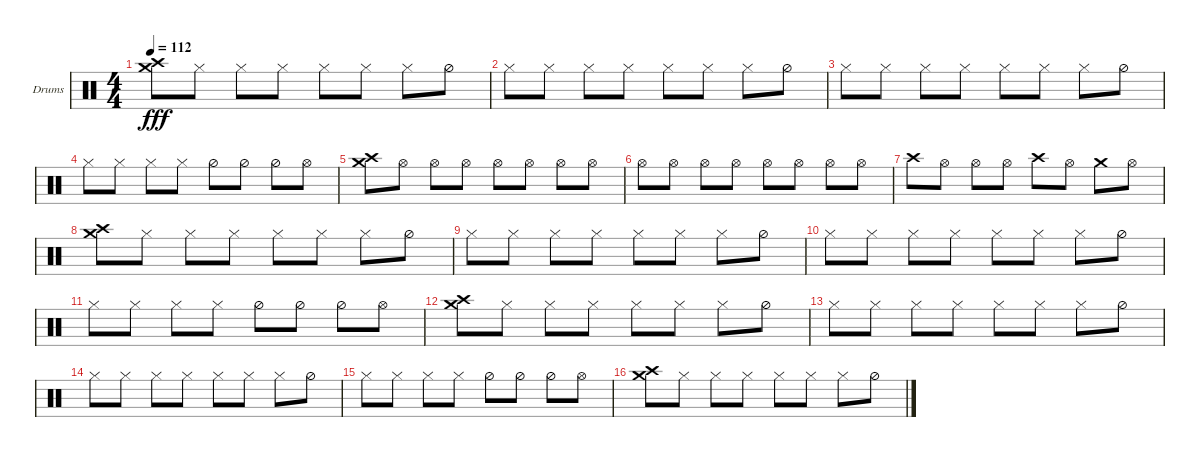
\defaultSystemsLayout 4
\bracketExtendMode groupsimilarinstruments
\firstSystemTrackNameOrientation horizontal
\otherSystemsTrackNameOrientation horizontal
\track ("Helders" "Drums") {instrument percussion}
\staff {score}
\articulation defaults
\ts (4 4)
\tempo 112
\clef neutral
\ks c
("Crash high (hit)" "Crash medium (hit)").8{dy fff} "Hi-Hat (closed)".8 "Hi-Hat (closed)".8 "Hi-Hat (closed)".8 "Hi-Hat (closed)".8 "Hi-Hat (closed)".8 "Hi-Hat (closed)".8 "Hi-Hat (half)".8 |
"Hi-Hat (closed)".8 "Hi-Hat (closed)".8 "Hi-Hat (closed)".8 "Hi-Hat (closed)".8 "Hi-Hat (closed)".8 "Hi-Hat (closed)".8 "Hi-Hat (closed)".8 "Hi-Hat (half)".8 |
"Hi-Hat (closed)".8 "Hi-Hat (closed)".8 "Hi-Hat (closed)".8 "Hi-Hat (closed)".8 "Hi-Hat (closed)".8 "Hi-Hat (closed)".8 "Hi-Hat (closed)".8 "Hi-Hat (half)".8 |
"Hi-Hat (closed)".8 "Hi-Hat (closed)".8 "Hi-Hat (closed)".8 "Hi-Hat (closed)".8 "Hi-Hat (half)".8 "Hi-Hat (half)".8 "Hi-Hat (half)".8 "Hi-Hat (open)".8 |
("Crash high (hit)" "Crash medium (hit)").8 "Hi-Hat (open)".8 "Hi-Hat (open)".8 "Hi-Hat (open)".8 "Hi-Hat (open)".8 "Hi-Hat (open)".8 "Hi-Hat (open)".8 "Hi-Hat (open)".8 |
"Hi-Hat (open)".8 "Hi-Hat (open)".8 "Hi-Hat (open)".8 "Hi-Hat (open)".8 "Hi-Hat (open)".8 "Hi-Hat (open)".8 "Hi-Hat (open)".8 "Hi-Hat (open)".8 |
"Crash high (hit)".8 "Hi-Hat (open)".8 "Hi-Hat (open)".8 "Hi-Hat (open)".8 "Crash high (hit)".8 "Hi-Hat (open)".8 "Crash medium (hit)".8 "Hi-Hat (open)".8 |
("Crash high (hit)" "Crash medium (hit)").8 "Hi-Hat (closed)".8 "Hi-Hat (closed)".8 "Hi-Hat (closed)".8 "Hi-Hat (closed)".8 "Hi-Hat (closed)".8 "Hi-Hat (closed)".8 "Hi-Hat (half)".8 |
"Hi-Hat (closed)".8 "Hi-Hat (closed)".8 "Hi-Hat (closed)".8 "Hi-Hat (closed)".8 "Hi-Hat (closed)".8 "Hi-Hat (closed)".8 "Hi-Hat (closed)".8 "Hi-Hat (half)".8 |
"Hi-Hat (closed)".8 "Hi-Hat (closed)".8 "Hi-Hat (closed)".8 "Hi-Hat (closed)".8 "Hi-Hat (closed)".8 "Hi-Hat (closed)".8 "Hi-Hat (closed)".8 "Hi-Hat (half)".8 |
"Hi-Hat (closed)".8 "Hi-Hat (closed)".8 "Hi-Hat (closed)".8 "Hi-Hat (closed)".8 "Hi-Hat (half)".8 "Hi-Hat (half)".8 "Hi-Hat (half)".8 "Hi-Hat (open)".8 |
("Crash high (hit)" "Crash medium (hit)").8 "Hi-Hat (closed)".8 "Hi-Hat (closed)".8 "Hi-Hat (closed)".8 "Hi-Hat (closed)".8 "Hi-Hat (closed)".8 "Hi-Hat (closed)".8 "Hi-Hat (half)".8 |
"Hi-Hat (closed)".8 "Hi-Hat (closed)".8 "Hi-Hat (closed)".8 "Hi-Hat (closed)".8 "Hi-Hat (closed)".8 "Hi-Hat (closed)".8 "Hi-Hat (closed)".8 "Hi-Hat (half)".8 |
"Hi-Hat (closed)".8 "Hi-Hat (closed)".8 "Hi-Hat (closed)".8 "Hi-Hat (closed)".8 "Hi-Hat (closed)".8 "Hi-Hat (closed)".8 "Hi-Hat (closed)".8 "Hi-Hat (half)".8 |
"Hi-Hat (closed)".8 "Hi-Hat (closed)".8 "Hi-Hat (closed)".8 "Hi-Hat (closed)".8 "Hi-Hat (half)".8 "Hi-Hat (half)".8 "Hi-Hat (half)".8 "Hi-Hat (open)".8 |
("Crash high (hit)" "Crash medium (hit)").8 "Hi-Hat (closed)".8 "Hi-Hat (closed)".8 "Hi-Hat (closed)".8 "Hi-Hat (closed)".8 "Hi-Hat (closed)".8 "Hi-Hat (closed)".8 "Hi-Hat (half)".8
